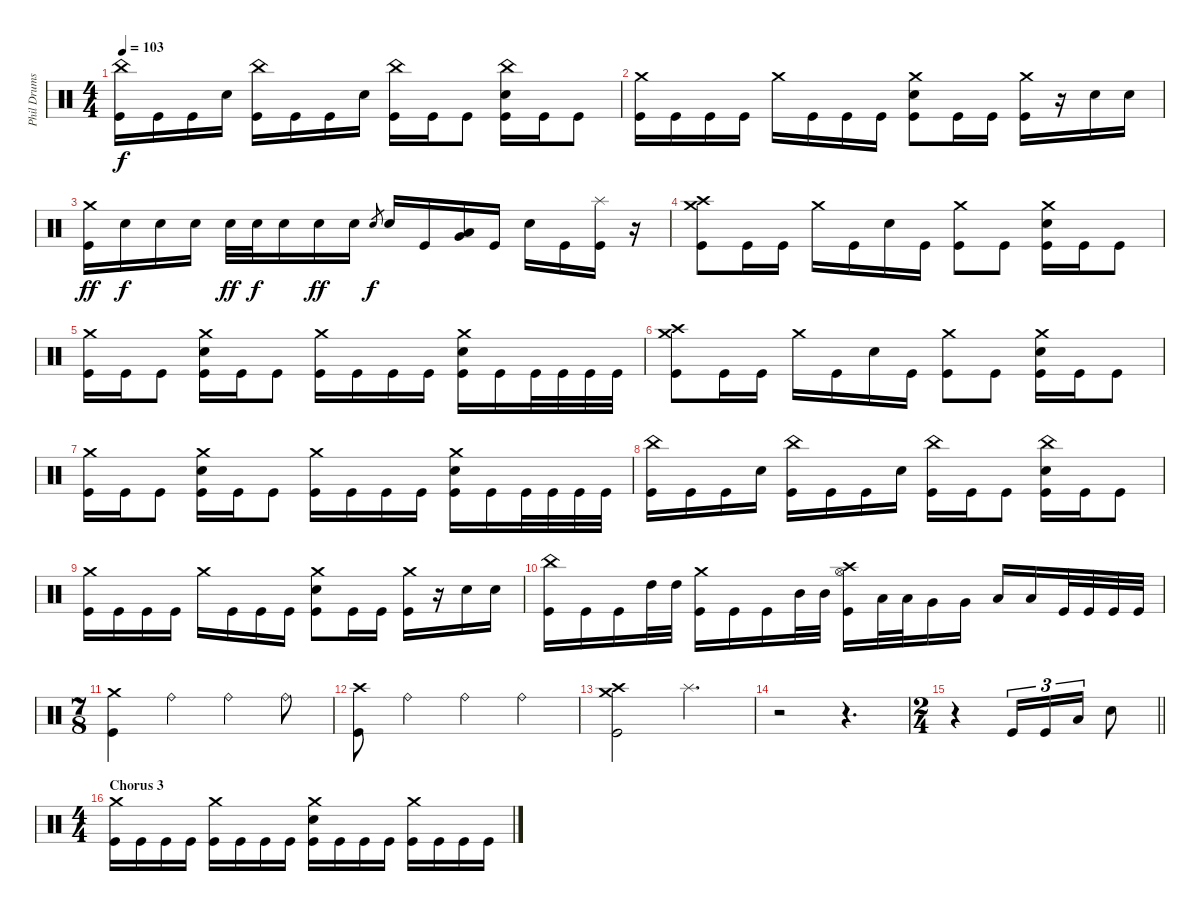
\track ("Phil Drums" "Phil Drums") {instrument percussion}
\staff {score}
\articulation defaults
\ts (4 4)
\tempo 103
\clef neutral
\ks c
("China (hit)" "Kick (hit)").16{dy f} "Kick (hit)".16 "Kick (hit)".16 "Snare (hit) 2".16 ("China (hit)" "Kick (hit)").16 "Kick (hit)".16 "Kick (hit)".16 "Snare (hit) 2".16 ("China (hit)" "Kick (hit)").16 "Kick (hit)".16 "Kick (hit)".8 ("China (hit)" "Snare (hit) 2" "Kick (hit)").16 "Kick (hit)".16 "Kick (hit)".8 |
("Crash medium (hit)" "Kick (hit)").16 "Kick (hit)".16 "Kick (hit)".16 "Kick (hit)".16 "Crash medium (hit)".16 "Kick (hit)".16 "Kick (hit)".16 "Kick (hit)".16 ("Crash medium (hit)" "Snare (hit) 2" "Kick (hit)").8 "Kick (hit)".16 "Kick (hit)".16 ("Crash medium (hit)" "Kick (hit)").16 r.16 "Snare (hit) 2".16 "Snare (hit) 2".16 |
("Crash medium (hit)" "Kick (hit)").16{dy ff} "Snare (hit) 2".16{dy f} "Snare (hit) 2".16 "Snare (hit) 2".16 "Snare (hit) 2".32{dy ff} "Snare (hit) 2".32{dy f} "Snare (hit) 2".16 "Snare (hit) 2".16{dy ff} "Snare (hit) 2".16 "Snare (hit)".8{gr dy f} "Snare (hit) 2".16 "Kick (hit)".16 ("Very Low Tom (hit)" "Low Floor Tom (hit)").16 "Kick (hit)".16 "Snare (hit) 2".16 "Kick (hit)".16 ("Kick (hit)" "Splash (hit)").16 r.16 |
("Crash medium (hit)" "Crash high (hit)" "Kick (hit)").8 "Kick (hit)".16 "Kick (hit)".16 "Crash medium (hit)".16 "Kick (hit)".16 "Snare (hit) 2".16 "Kick (hit)".16 ("Crash medium (hit)" "Kick (hit)").8 "Kick (hit)".8 ("Crash medium (hit)" "Snare (hit) 2" "Kick (hit)").16 "Kick (hit)".16 "Kick (hit)".8 |
("Crash medium (hit)" "Kick (hit)").16 "Kick (hit)".16 "Kick (hit)".8 ("Crash medium (hit)" "Snare (hit) 2" "Kick (hit)").16 "Kick (hit)".16 "Kick (hit)".8 ("Crash medium (hit)" "Kick (hit)").16 "Kick (hit)".16 "Kick (hit)".16 "Kick (hit)".16 ("Crash medium (hit)" "Snare (hit) 2" "Kick (hit)").16 "Kick (hit)".16 "Kick (hit)".32 "Kick (hit)".32 "Kick (hit)".32 "Kick (hit)".32 |
("Crash medium (hit)" "Crash high (hit)" "Kick (hit)").8 "Kick (hit)".16 "Kick (hit)".16 "Crash medium (hit)".16 "Kick (hit)".16 "Snare (hit) 2".16 "Kick (hit)".16 ("Crash medium (hit)" "Kick (hit)").8 "Kick (hit)".8 ("Crash medium (hit)" "Snare (hit) 2" "Kick (hit)").16 "Kick (hit)".16 "Kick (hit)".8 |
("Crash medium (hit)" "Kick (hit)").16 "Kick (hit)".16 "Kick (hit)".8 ("Crash medium (hit)" "Snare (hit) 2" "Kick (hit)").16 "Kick (hit)".16 "Kick (hit)".8 ("Crash medium (hit)" "Kick (hit)").16 "Kick (hit)".16 "Kick (hit)".16 "Kick (hit)".16 ("Crash medium (hit)" "Snare (hit) 2" "Kick (hit)").16 "Kick (hit)".16 "Kick (hit)".32 "Kick (hit)".32 "Kick (hit)".32 "Kick (hit)".32 |
("China (hit)" "Kick (hit)").16 "Kick (hit)".16 "Kick (hit)".16 "Snare (hit) 2".16 ("China (hit)" "Kick (hit)").16 "Kick (hit)".16 "Kick (hit)".16 "Snare (hit) 2".16 ("China (hit)" "Kick (hit)").16 "Kick (hit)".16 "Kick (hit)".8 ("China (hit)" "Snare (hit) 2" "Kick (hit)").16 "Kick (hit)".16 "Kick (hit)".8 |
("Crash medium (hit)" "Kick (hit)").16 "Kick (hit)".16 "Kick (hit)".16 "Kick (hit)".16 "Crash medium (hit)".16 "Kick (hit)".16 "Kick (hit)".16 "Kick (hit)".16 ("Crash medium (hit)" "Snare (hit) 2" "Kick (hit)").8 "Kick (hit)".16 "Kick (hit)".16 ("Crash medium (hit)" "Kick (hit)").16 r.16 "Snare (hit) 2".16 "Snare (hit) 2".16 |
("China (hit)" "Kick (hit)").16 "Kick (hit)".16 "Kick (hit)".16 "High Tom (hit)".32 "High Tom (hit)".32 ("Crash medium (hit)" "Kick (hit)").16 "Kick (hit)".16 "Kick (hit)".16 "Mid Tom (hit)".32 "Mid Tom (hit)".32 ("Hi-Hat (open)" "Crash high (hit)" "Kick (hit)").16 "Low Tom (hit)".32 "Low Tom (hit)".32 "Very Low Tom (hit)".16 "Very Low Tom (hit)".16 "Low Floor Tom (hit)".16 "Low Floor Tom (hit)".16 "Kick (hit)".32 "Kick (hit)".32 "Kick (hit)".32 "Kick (hit)".32 |
\ts (7 8)
("Crash medium (hit)" "Kick (hit)").4 "Ride (bell)".4 "Ride (bell)".4 "Ride (bell)".8 |
("Crash high (hit)" "Kick (hit)").8 "Ride (bell)".4 "Ride (bell)".4 "Ride (bell)".4 |
("Crash medium (hit)" "Crash high (hit)" "Kick (hit)").2 "Splash (hit)".4{d} |
r.2 r.4{d} |
\ts (2 4)
\barLineRight lightlight
r.4 "Kick (hit)".16{tu (3 2)} "Kick (hit)".16{tu (3 2)} "Low Floor Tom (hit)".16{tu (3 2)} "Snare (hit) 2".8 |
\ts (4 4)
\section ("" "Chorus 3")
("Crash medium (hit)" "Kick (hit)").16 "Kick (hit)".16 "Kick (hit)".16 "Kick (hit)".16 ("Crash medium (hit)" "Kick (hit)").16 "Kick (hit)".16 "Kick (hit)".16 "Kick (hit)".16 ("Crash medium (hit)" "Snare (hit) 2" "Kick (hit)").16 "Kick (hit)".16 "Kick (hit)".16 "Kick (hit)".16 ("Crash medium (hit)" "Kick (hit)").16 "Kick (hit)".16 "Kick (hit)".16 "Kick (hit)".16
